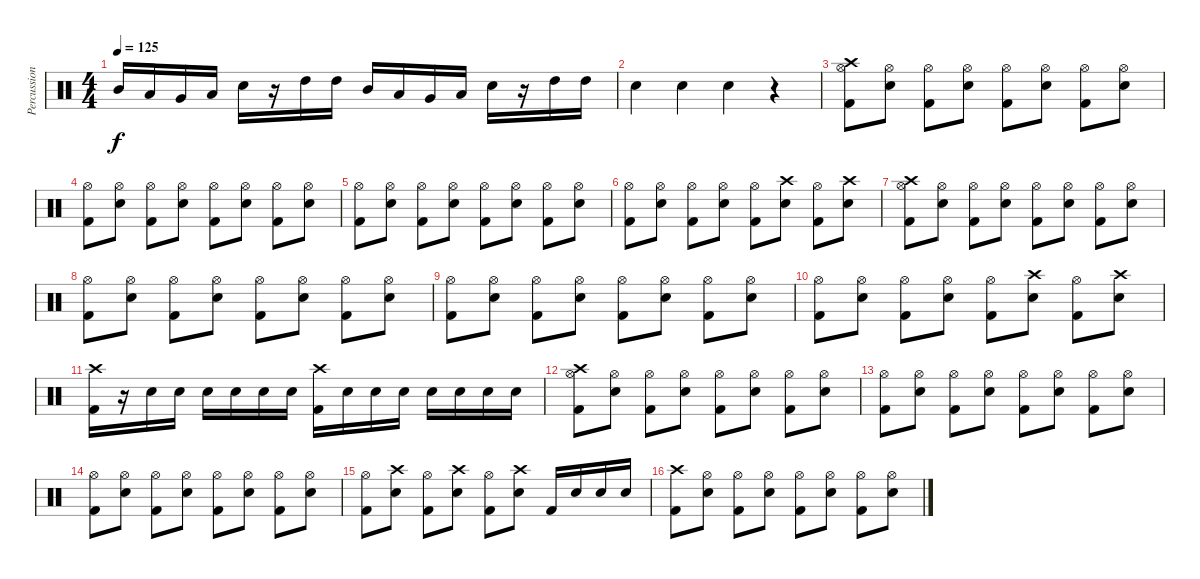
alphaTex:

\track ("Percussion" "Percussion") {instrument percussion}
\staff {score}
\articulation defaults
\ts (4 4)
\tempo 125
\clef neutral
\ks c "Mid Tom (hit)".16{dy f} "Low Tom (hit)".16 "Very Low Tom (hit)".16 "Low Floor Tom (hit)".16 "Electric Snare (hit)".16
r.16 "High Tom (hit)".16 "High Tom (hit)".16 "Mid Tom (hit)".16 "Low Tom (hit)".16 "Very Low Tom (hit)".16 "Low Floor Tom (hit)".16 "Electric Snare (hit)".16 r.16 "High Tom (hit)".16 "High Tom (hit)".16 |
"Electric Snare (hit)".4 "Electric Snare (hit)".4 "Electric Snare (hit)".4 r.4 |
("Hi-Hat (open)" "Crash high (hit)" "Kick (hit) 2").8 ("Hi-Hat (open)" "Electric Snare (hit)").8 ("Hi-Hat (open)" "Kick (hit) 2").8 ("Hi-Hat (open)" "Electric Snare (hit)").8 ("Hi-Hat (open)" "Kick (hit) 2").8 ("Hi-Hat (open)" "Electric Snare (hit)").8 ("Hi-Hat (open)" "Kick (hit) 2").8 ("Hi-Hat (open)" "Electric Snare (hit)").8 |
("Hi-Hat (open)" "Kick (hit) 2").8 ("Hi-Hat (open)" "Electric Snare (hit)").8 ("Hi-Hat (open)" "Kick (hit) 2").8 ("Hi-Hat (open)" "Electric Snare (hit)").8 ("Hi-Hat (open)" "Kick (hit) 2").8 ("Hi-Hat (open)" "Electric Snare (hit)").8 ("Hi-Hat (open)" "Kick (hit) 2").8 ("Hi-Hat (open)" "Electric Snare (hit)").8 |
("Hi-Hat (open)" "Kick (hit) 2").8 ("Hi-Hat (open)" "Electric Snare (hit)").8 ("Hi-Hat (open)" "Kick (hit) 2").8 ("Hi-Hat (open)" "Electric Snare (hit)").8 ("Hi-Hat (open)" "Kick (hit) 2").8 ("Hi-Hat (open)" "Electric Snare (hit)").8 ("Hi-Hat (open)" "Kick (hit) 2").8 ("Hi-Hat (open)" "Electric Snare (hit)").8 |
("Hi-Hat (open)" "Kick (hit) 2").8 ("Hi-Hat (open)" "Electric Snare (hit)").8 ("Hi-Hat (open)" "Kick (hit) 2").8 ("Hi-Hat (open)" "Electric Snare (hit)").8 ("Hi-Hat (open)" "Kick (hit) 2").8 ("Crash high (hit)" "Electric Snare (hit)").8 ("Hi-Hat (open)" "Kick (hit) 2").8 ("Crash high (hit)" "Electric Snare (hit)").8 |
("Hi-Hat (open)" "Crash high (hit)" "Kick (hit) 2").8 ("Hi-Hat (open)" "Electric Snare (hit)").8 ("Hi-Hat (open)" "Kick (hit) 2").8 ("Hi-Hat (open)" "Electric Snare (hit)").8 ("Hi-Hat (open)" "Kick (hit) 2").8 ("Hi-Hat (open)" "Electric Snare (hit)").8 ("Hi-Hat (open)" "Kick (hit) 2").8 ("Hi-Hat (open)" "Electric Snare (hit)").8 |
("Hi-Hat (open)" "Kick (hit) 2").8 ("Hi-Hat (open)" "Electric Snare (hit)").8 ("Hi-Hat (open)" "Kick (hit) 2").8 ("Hi-Hat (open)" "Electric Snare (hit)").8 ("Hi-Hat (open)" "Kick (hit) 2").8 ("Hi-Hat (open)" "Electric Snare (hit)").8 ("Hi-Hat (open)" "Kick (hit) 2").8 ("Hi-Hat (open)" "Electric Snare (hit)").8 |
("Hi-Hat (open)" "Kick (hit) 2").8 ("Hi-Hat (open)" "Electric Snare (hit)").8 ("Hi-Hat (open)" "Kick (hit) 2").8 ("Hi-Hat (open)" "Electric Snare (hit)").8 ("Hi-Hat (open)" "Kick (hit) 2").8 ("Hi-Hat (open)" "Electric Snare (hit)").8 ("Hi-Hat (open)" "Kick (hit) 2").8 ("Hi-Hat (open)" "Electric Snare (hit)").8 |
("Hi-Hat (open)" "Kick (hit) 2").8 ("Hi-Hat (open)" "Electric Snare (hit)").8 ("Hi-Hat (open)" "Kick (hit) 2").8 ("Hi-Hat (open)" "Electric Snare (hit)").8 ("Hi-Hat (open)" "Kick (hit) 2").8 ("Crash high (hit)" "Electric Snare (hit)").8 ("Hi-Hat (open)" "Kick (hit) 2").8 ("Crash high (hit)" "Electric Snare (hit)").8 |
("Crash high (hit)" "Kick (hit) 2").16 r.16 "Electric Snare (hit)".16 "Electric Snare (hit)".16 "Electric Snare (hit)".16 "Electric Snare (hit)".16 "Electric Snare (hit)".16 "Electric Snare (hit)".16 ("Crash high (hit)" "Kick (hit) 2").16 "Electric Snare (hit)".16 "Electric Snare (hit)".16 "Electric Snare (hit)".16 "Electric Snare (hit)".16 "Electric Snare (hit)".16 "Electric Snare (hit)".16 "Electric Snare (hit)".16 |
("Hi-Hat (open)" "Crash high (hit)" "Kick (hit) 2").8 ("Hi-Hat (open)" "Electric Snare (hit)").8 ("Hi-Hat (open)" "Kick (hit) 2").8 ("Hi-Hat (open)" "Electric Snare (hit)").8 ("Hi-Hat (open)" "Kick (hit) 2").8 ("Hi-Hat (open)" "Electric Snare (hit)").8 ("Hi-Hat (open)" "Kick (hit) 2").8 ("Hi-Hat (open)" "Electric Snare (hit)").8 |
("Hi-Hat (open)" "Kick (hit) 2").8 ("Hi-Hat (open)" "Electric Snare (hit)").8 ("Hi-Hat (open)" "Kick (hit) 2").8 ("Hi-Hat (open)" "Electric Snare (hit)").8 ("Hi-Hat (open)" "Kick (hit) 2").8 ("Hi-Hat (open)" "Electric Snare (hit)").8 ("Hi-Hat (open)" "Kick (hit) 2").8 ("Hi-Hat (open)" "Electric Snare (hit)").8 |
("Hi-Hat (open)" "Kick (hit) 2").8 ("Hi-Hat (open)" "Electric Snare (hit)").8 ("Hi-Hat (open)" "Kick (hit) 2").8 ("Hi-Hat (open)" "Electric Snare (hit)").8 ("Hi-Hat (open)" "Kick (hit) 2").8 ("Hi-Hat (open)" "Electric Snare (hit)").8 ("Hi-Hat (open)" "Kick (hit) 2").8 ("Hi-Hat (open)" "Electric Snare (hit)").8 |
("Hi-Hat (open)" "Kick (hit) 2").8 ("Crash high (hit)" "Electric Snare (hit)").8 ("Hi-Hat (open)" "Kick (hit) 2").8 ("Crash high (hit)" "Electric Snare (hit)").8 ("Hi-Hat (open)" "Kick (hit) 2").8 ("Crash high (hit)" "Electric Snare (hit)").8 "Kick (hit) 2".16 "Electric Snare (hit)".16 "Electric Snare (hit)".16 "Electric Snare (hit)".16 |
("Crash high (hit)" "Kick (hit) 2").8 ("Hi-Hat (open)" "Electric Snare (hit)").8 ("Hi-Hat (open)" "Kick (hit) 2").8 ("Hi-Hat (open)" "Electric Snare (hit)").8 ("Hi-Hat (open)" "Kick (hit) 2").8 ("Hi-Hat (open)" "Electric Snare (hit)").8 ("Hi-Hat (open)" "Kick (hit) 2").8 ("Hi-Hat (open)" "Electric Snare (hit)").8
